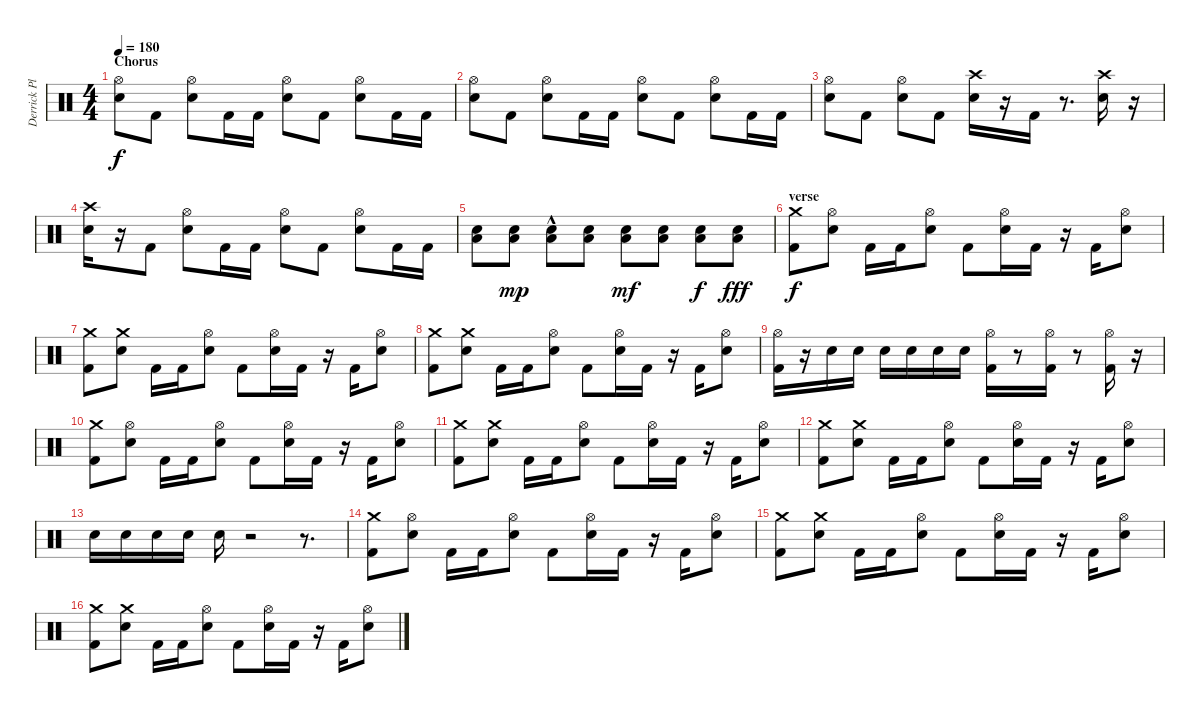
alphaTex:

\track ("Derrick Plourde" "Derrick Pl") {instrument percussion}
\staff {score}
\articulation defaults
\ts (4 4)
\section ("" "Chorus")
\tempo 180
\clef neutral
\ks c
("Hi-Hat (open)" "Electric Snare (hit)").8{dy f} "Kick (hit) 2".8 ("Hi-Hat (open)" "Electric Snare (hit)").8 "Kick (hit) 2".16 "Kick (hit) 2".16 ("Hi-Hat (open)" "Electric Snare (hit)").8 "Kick (hit) 2".8 ("Hi-Hat (open)" "Electric Snare (hit)").8 "Kick (hit) 2".16 "Kick (hit) 2".16 |
("Hi-Hat (open)" "Electric Snare (hit)").8 "Kick (hit) 2".8 ("Hi-Hat (open)" "Electric Snare (hit)").8 "Kick (hit) 2".16 "Kick (hit) 2".16 ("Hi-Hat (open)" "Electric Snare (hit)").8 "Kick (hit) 2".8 ("Hi-Hat (open)" "Electric Snare (hit)").8 "Kick (hit) 2".16 "Kick (hit) 2".16 |
("Hi-Hat (open)" "Electric Snare (hit)").8 "Kick (hit) 2".8 ("Hi-Hat (open)" "Electric Snare (hit)").8 "Kick (hit) 2".8 ("Crash high (hit)" "Electric Snare (hit)").16 r.16 "Kick (hit) 2".16 r.8{d} ("Crash high (hit)" "Electric Snare (hit)").16 r.16 |
("Crash high (hit)" "Electric Snare (hit)").16 r.16 "Kick (hit) 2".8 ("Hi-Hat (open)" "Electric Snare (hit)").8 "Kick (hit) 2".16 "Kick (hit) 2".16 ("Hi-Hat (open)" "Electric Snare (hit)").8 "Kick (hit) 2".8 ("Hi-Hat (open)" "Electric Snare (hit)").8 "Kick (hit) 2".16 "Kick (hit) 2".16 |
("Electric Snare (hit)" "Low Tom (hit)").8 ("Electric Snare (hit)" "Low Tom (hit)").8{dy mp} ("Electric Snare (hit)" "Low Tom (hit)"{hac}).8 ("Electric Snare (hit)" "Low Tom (hit)").8 ("Electric Snare (hit)" "Low Tom (hit)").8{dy mf} ("Electric Snare (hit)" "Low Tom (hit)").8 ("Electric Snare (hit)" "Low Tom (hit)").8{dy f} ("Electric Snare (hit)" "Low Tom (hit)").8{dy fff} |
\section ("" "verse")
("Crash medium (hit)" "Kick (hit) 2").8{dy f} ("Hi-Hat (open)" "Electric Snare (hit)").8 "Kick (hit) 2".16 "Kick (hit) 2".16 ("Hi-Hat (open)" "Electric Snare (hit)").8 "Kick (hit) 2".8 ("Hi-Hat (open)" "Electric Snare (hit)").16 "Kick (hit) 2".16 r.16 "Kick (hit) 2".16 ("Hi-Hat (open)" "Electric Snare (hit)").8 |
("Crash medium (hit)" "Kick (hit) 2").8 ("Crash medium (hit)" "Electric Snare (hit)").8 "Kick (hit) 2".16 "Kick (hit) 2".16 ("Hi-Hat (open)" "Electric Snare (hit)").8 "Kick (hit) 2".8 ("Hi-Hat (open)" "Electric Snare (hit)").16 "Kick (hit) 2".16 r.16 "Kick (hit) 2".16 ("Hi-Hat (open)" "Electric Snare (hit)").8 |
("Crash medium (hit)" "Kick (hit) 2").8 ("Crash medium (hit)" "Electric Snare (hit)").8 "Kick (hit) 2".16 "Kick (hit) 2".16 ("Hi-Hat (open)" "Electric Snare (hit)").8 "Kick (hit) 2".8 ("Hi-Hat (open)" "Electric Snare (hit)").16 "Kick (hit) 2".16 r.16 "Kick (hit) 2".16 ("Hi-Hat (open)" "Electric Snare (hit)").8 |
("Hi-Hat (open)" "Kick (hit) 2").16 r.16 "Electric Snare (hit)".16 "Electric Snare (hit)".16 "Electric Snare (hit)".16 "Electric Snare (hit)".16 "Electric Snare (hit)".16 "Electric Snare (hit)".16 ("Hi-Hat (open)" "Kick (hit) 2").16 r.8 ("Hi-Hat (open)" "Kick (hit) 2").16 r.8 ("Hi-Hat (open)" "Kick (hit) 2").16 r.16 |
("Crash medium (hit)" "Kick (hit) 2").8 ("Hi-Hat (open)" "Electric Snare (hit)").8 "Kick (hit) 2".16 "Kick (hit) 2".16 ("Hi-Hat (open)" "Electric Snare (hit)").8 "Kick (hit) 2".8 ("Hi-Hat (open)" "Electric Snare (hit)").16 "Kick (hit) 2".16 r.16 "Kick (hit) 2".16 ("Hi-Hat (open)" "Electric Snare (hit)").8 |
("Crash medium (hit)" "Kick (hit) 2").8 ("Crash medium (hit)" "Electric Snare (hit)").8 "Kick (hit) 2".16 "Kick (hit) 2".16 ("Hi-Hat (open)" "Electric Snare (hit)").8 "Kick (hit) 2".8 ("Hi-Hat (open)" "Electric Snare (hit)").16 "Kick (hit) 2".16 r.16 "Kick (hit) 2".16 ("Hi-Hat (open)" "Electric Snare (hit)").8 |
("Crash medium (hit)" "Kick (hit) 2").8 ("Crash medium (hit)" "Electric Snare (hit)").8 "Kick (hit) 2".16 "Kick (hit) 2".16 ("Hi-Hat (open)" "Electric Snare (hit)").8 "Kick (hit) 2".8 ("Hi-Hat (open)" "Electric Snare (hit)").16 "Kick (hit) 2".16 r.16 "Kick (hit) 2".16 ("Hi-Hat (open)" "Electric Snare (hit)").8 |
"Electric Snare (hit)".16 "Electric Snare (hit)".16 "Electric Snare (hit)".16 "Electric Snare (hit)".16 "Electric Snare (hit)".16 r.2 r.8{d} |
("Crash medium (hit)" "Kick (hit) 2").8 ("Hi-Hat (open)" "Electric Snare (hit)").8 "Kick (hit) 2".16 "Kick (hit) 2".16 ("Hi-Hat (open)" "Electric Snare (hit)").8 "Kick (hit) 2".8 ("Hi-Hat (open)" "Electric Snare (hit)").16 "Kick (hit) 2".16 r.16 "Kick (hit) 2".16 ("Hi-Hat (open)" "Electric Snare (hit)").8 |
("Crash medium (hit)" "Kick (hit) 2").8 ("Crash medium (hit)" "Electric Snare (hit)").8 "Kick (hit) 2".16 "Kick (hit) 2".16 ("Hi-Hat (open)" "Electric Snare (hit)").8 "Kick (hit) 2".8 ("Hi-Hat (open)" "Electric Snare (hit)").16 "Kick (hit) 2".16 r.16 "Kick (hit) 2".16 ("Hi-Hat (open)" "Electric Snare (hit)").8 |
("Crash medium (hit)" "Kick (hit) 2").8 ("Crash medium (hit)" "Electric Snare (hit)").8 "Kick (hit) 2".16 "Kick (hit) 2".16 ("Hi-Hat (open)" "Electric Snare (hit)").8 "Kick (hit) 2".8 ("Hi-Hat (open)" "Electric Snare (hit)").16 "Kick (hit) 2".16 r.16 "Kick (hit) 2".16 ("Hi-Hat (open)" "Electric Snare (hit)").8
